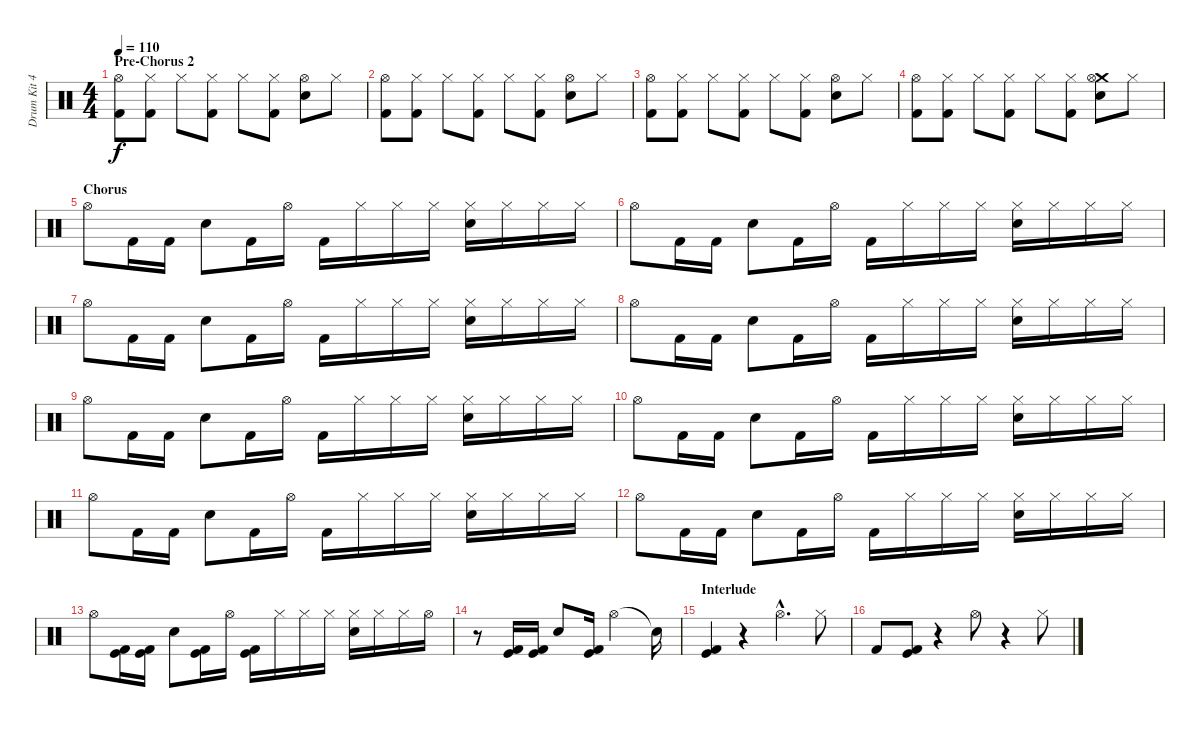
\track ("Drum Kit 42" "Drum Kit 4") {instrument percussion}
\staff {score}
\articulation defaults
\ts (4 4)
\section ("" "Pre-Chorus 2")
\tempo 110
\clef neutral
\ks c
("Hi-Hat (open)" "Kick (hit) 2").8{dy f} ("Hi-Hat (closed)" "Kick (hit) 2").8 "Hi-Hat (closed)".8 ("Hi-Hat (closed)" "Kick (hit) 2").8 "Hi-Hat (closed)".8 ("Hi-Hat (closed)" "Kick (hit) 2").8 ("Hi-Hat (open)" "Snare (hit) 2").8 "Hi-Hat (closed)".8 |
("Hi-Hat (open)" "Kick (hit) 2").8 ("Hi-Hat (closed)" "Kick (hit) 2").8 "Hi-Hat (closed)".8 ("Hi-Hat (closed)" "Kick (hit) 2").8 "Hi-Hat (closed)".8 ("Hi-Hat (closed)" "Kick (hit) 2").8 ("Hi-Hat (open)" "Snare (hit) 2").8 "Hi-Hat (closed)".8 |
("Hi-Hat (open)" "Kick (hit) 2").8 ("Hi-Hat (closed)" "Kick (hit) 2").8 "Hi-Hat (closed)".8 ("Hi-Hat (closed)" "Kick (hit) 2").8 "Hi-Hat (closed)".8 ("Hi-Hat (closed)" "Kick (hit) 2").8 ("Hi-Hat (open)" "Snare (hit) 2").8 "Hi-Hat (closed)".8 |
("Hi-Hat (open)" "Kick (hit) 2").8 ("Hi-Hat (closed)" "Kick (hit) 2").8 "Hi-Hat (closed)".8 ("Hi-Hat (closed)" "Kick (hit) 2").8 "Hi-Hat (closed)".8 ("Hi-Hat (closed)" "Kick (hit) 2").8 ("Crash medium (hit)" "Hi-Hat (open)" "Snare (hit) 2").8 "Hi-Hat (closed)".8 |
\section ("" "Chorus")
"Hi-Hat (open)".8 "Kick (hit) 2".16 "Kick (hit) 2".16 "Snare (hit) 2".8 "Kick (hit) 2".16 "Hi-Hat (open)".16 "Kick (hit) 2".16 "Hi-Hat (closed)".16 "Hi-Hat (closed)".16 "Hi-Hat (closed)".16 ("Hi-Hat (closed)" "Snare (hit) 2").16 "Hi-Hat (closed)".16 "Hi-Hat (closed)".16 "Hi-Hat (closed)".16 |
"Hi-Hat (open)".8 "Kick (hit) 2".16 "Kick (hit) 2".16 "Snare (hit) 2".8 "Kick (hit) 2".16 "Hi-Hat (open)".16 "Kick (hit) 2".16 "Hi-Hat (closed)".16 "Hi-Hat (closed)".16 "Hi-Hat (closed)".16 ("Hi-Hat (closed)" "Snare (hit) 2").16 "Hi-Hat (closed)".16 "Hi-Hat (closed)".16 "Hi-Hat (closed)".16 |
"Hi-Hat (open)".8 "Kick (hit) 2".16 "Kick (hit) 2".16 "Snare (hit) 2".8 "Kick (hit) 2".16 "Hi-Hat (open)".16 "Kick (hit) 2".16 "Hi-Hat (closed)".16 "Hi-Hat (closed)".16 "Hi-Hat (closed)".16 ("Hi-Hat (closed)" "Snare (hit) 2").16 "Hi-Hat (closed)".16 "Hi-Hat (closed)".16 "Hi-Hat (closed)".16 |
"Hi-Hat (open)".8 "Kick (hit) 2".16 "Kick (hit) 2".16 "Snare (hit) 2".8 "Kick (hit) 2".16 "Hi-Hat (open)".16 "Kick (hit) 2".16 "Hi-Hat (closed)".16 "Hi-Hat (closed)".16 "Hi-Hat (closed)".16 ("Hi-Hat (closed)" "Snare (hit) 2").16 "Hi-Hat (closed)".16 "Hi-Hat (closed)".16 "Hi-Hat (closed)".16 |
"Hi-Hat (open)".8 "Kick (hit) 2".16 "Kick (hit) 2".16 "Snare (hit) 2".8 "Kick (hit) 2".16 "Hi-Hat (open)".16 "Kick (hit) 2".16 "Hi-Hat (closed)".16 "Hi-Hat (closed)".16 "Hi-Hat (closed)".16 ("Hi-Hat (closed)" "Snare (hit) 2").16 "Hi-Hat (closed)".16 "Hi-Hat (closed)".16 "Hi-Hat (closed)".16 |
"Hi-Hat (open)".8 "Kick (hit) 2".16 "Kick (hit) 2".16 "Snare (hit) 2".8 "Kick (hit) 2".16 "Hi-Hat (open)".16 "Kick (hit) 2".16 "Hi-Hat (closed)".16 "Hi-Hat (closed)".16 "Hi-Hat (closed)".16 ("Hi-Hat (closed)" "Snare (hit) 2").16 "Hi-Hat (closed)".16 "Hi-Hat (closed)".16 "Hi-Hat (closed)".16 |
"Hi-Hat (open)".8 "Kick (hit) 2".16 "Kick (hit) 2".16 "Snare (hit) 2".8 "Kick (hit) 2".16 "Hi-Hat (open)".16 "Kick (hit) 2".16 "Hi-Hat (closed)".16 "Hi-Hat (closed)".16 "Hi-Hat (closed)".16 ("Hi-Hat (closed)" "Snare (hit) 2").16 "Hi-Hat (closed)".16 "Hi-Hat (closed)".16 "Hi-Hat (closed)".16 |
"Hi-Hat (open)".8 "Kick (hit) 2".16 "Kick (hit) 2".16 "Snare (hit) 2".8 "Kick (hit) 2".16 "Hi-Hat (open)".16 "Kick (hit) 2".16 "Hi-Hat (closed)".16 "Hi-Hat (closed)".16 "Hi-Hat (closed)".16 ("Hi-Hat (closed)" "Snare (hit) 2").16 "Hi-Hat (closed)".16 "Hi-Hat (closed)".16 "Hi-Hat (closed)".16 |
"Hi-Hat (open)".8 ("Kick (hit)" "Kick (hit) 2").16 ("Kick (hit)" "Kick (hit) 2").16 "Snare (hit) 2".8 ("Kick (hit)" "Kick (hit) 2").16 "Hi-Hat (open)".16 ("Kick (hit)" "Kick (hit) 2").16 "Hi-Hat (closed)".16 "Hi-Hat (closed)".16 "Hi-Hat (closed)".16 ("Hi-Hat (closed)" "Snare (hit) 2").16 "Hi-Hat (closed)".16 "Hi-Hat (closed)".16 "Hi-Hat (open)".16 |
r.8 ("Kick (hit)" "Kick (hit) 2").16 ("Kick (hit)" "Kick (hit) 2").16 "Snare (hit) 2".8 ("Kick (hit)" "Kick (hit) 2").16 "Hi-Hat (open)".2 "Snare (hit)"{t}.16 |
\section ("" "Interlude")
("Kick (hit)" "Kick (hit) 2").4 r.4 "Hi-Hat (open)"{hac}.4{d} "Hi-Hat (closed)".8 |
"Kick (hit) 2".8 ("Kick (hit)" "Kick (hit) 2").8 r.4 "Hi-Hat (open)".8 r.4 "Hi-Hat (closed)".8
